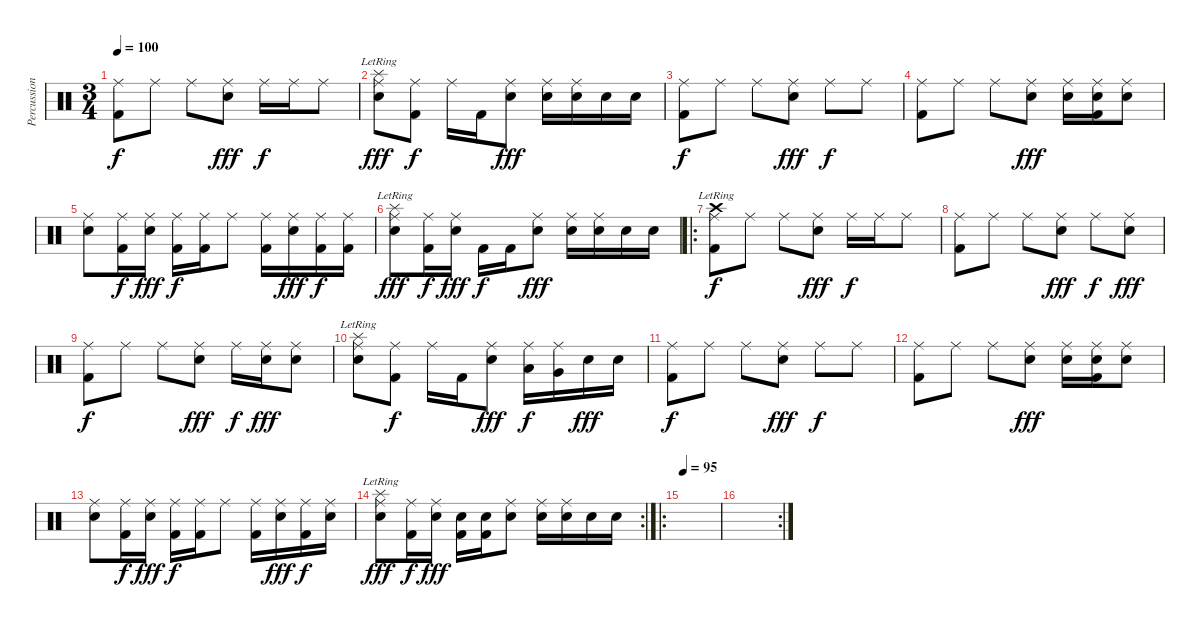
\track ("Percussions" "Percussion") {instrument percussion}
\staff {score}
\articulation defaults
\ts (3 4)
\tempo 100
\clef neutral
\ks c
("Ride (middle)" "Kick (hit) 2").8{dy f} "Ride (middle)".8 "Ride (middle)".8 ("Ride (middle)" "Snare (hit) 2").8{dy fff} "Ride (middle)".16{dy f} "Ride (middle)".16 "Ride (middle)".8 |
("Ride (middle)" "Splash (hit)"{lr} "Snare (hit) 2").8{dy fff} ("Ride (middle)" "Kick (hit) 2").8{dy f} "Ride (middle)".16 "Kick (hit) 2".16 ("Ride (middle)" "Snare (hit) 2").8{dy fff} ("Ride (middle)" "Snare (hit) 2").16 ("Ride (middle)" "Snare (hit) 2").16 "Snare (hit) 2".16 "Snare (hit) 2".16 |
("Ride (middle)" "Kick (hit) 2").8{dy f} "Ride (middle)".8 "Ride (middle)".8 ("Ride (middle)" "Snare (hit) 2").8{dy fff} "Ride (middle)".8{dy f} "Ride (middle)".8 |
("Ride (middle)" "Kick (hit) 2").8 "Ride (middle)".8 "Ride (middle)".8 ("Ride (middle)" "Snare (hit) 2").8{dy fff} ("Ride (middle)" "Snare (hit) 2").16 ("Ride (middle)" "Snare (hit) 2" "Kick (hit) 2").16 ("Ride (middle)" "Snare (hit) 2").8 |
("Ride (middle)" "Snare (hit) 2").8 ("Ride (middle)" "Kick (hit) 2").16{dy f} ("Ride (middle)" "Snare (hit) 2").16{dy fff} ("Ride (middle)" "Kick (hit) 2").16{dy f} ("Ride (middle)" "Kick (hit) 2").16 "Ride (middle)".8 ("Ride (middle)" "Kick (hit) 2").16 ("Ride (middle)" "Snare (hit) 2").16{dy fff} ("Ride (middle)" "Kick (hit) 2").16{dy f} ("Ride (middle)" "Kick (hit) 2").16 |
("Ride (middle)" "Splash (hit)"{lr} "Snare (hit) 2").8{dy fff} ("Ride (middle)" "Kick (hit) 2").16{dy f} ("Ride (middle)" "Snare (hit) 2").16{dy fff} "Kick (hit) 2".16{dy f} "Kick (hit) 2".16 ("Ride (middle)" "Snare (hit) 2").8{dy fff} ("Ride (middle)" "Snare (hit) 2").16 ("Ride (middle)" "Snare (hit) 2").16 "Snare (hit) 2".16 "Snare (hit) 2".16 |
\ro
("Ride (middle)" "Crash high (hit)"{lr} "Kick (hit) 2").8{dy f} "Ride (middle)".8 "Ride (middle)".8 ("Ride (middle)" "Snare (hit) 2").8{dy fff} "Ride (middle)".16{dy f} "Ride (middle)".16 "Ride (middle)".8 |
("Ride (middle)" "Kick (hit) 2").8 "Ride (middle)".8 "Ride (middle)".8 ("Ride (middle)" "Snare (hit) 2").8{dy fff} "Ride (middle)".8{dy f} ("Ride (middle)" "Snare (hit) 2").8{dy fff} |
("Ride (middle)" "Kick (hit) 2").8{dy f} "Ride (middle)".8 "Ride (middle)".8 ("Ride (middle)" "Snare (hit) 2").8{dy fff} "Ride (middle)".16{dy f} ("Ride (middle)" "Snare (hit) 2").16{dy fff} ("Ride (middle)" "Snare (hit) 2").8 |
("Ride (middle)" "Splash (hit)"{lr} "Snare (hit) 2").8 ("Ride (middle)" "Kick (hit) 2").8{dy f} "Ride (middle)".16 "Kick (hit) 2".16 ("Ride (middle)" "Snare (hit) 2").8{dy fff} ("Ride (middle)" "Low Tom (hit)").16{dy f} ("Ride (middle)" "Very Low Tom (hit)").16 "Snare (hit) 2".16{dy fff} "Snare (hit) 2".16 |
("Ride (middle)" "Kick (hit) 2").8{dy f} "Ride (middle)".8 "Ride (middle)".8 ("Ride (middle)" "Snare (hit) 2").8{dy fff} "Ride (middle)".8{dy f} "Ride (middle)".8 |
("Ride (middle)" "Kick (hit) 2").8 "Ride (middle)".8 "Ride (middle)".8 ("Ride (middle)" "Snare (hit) 2").8{dy fff} ("Ride (middle)" "Snare (hit) 2").16 ("Ride (middle)" "Snare (hit) 2" "Kick (hit) 2").16 ("Ride (middle)" "Snare (hit) 2").8 |
("Ride (middle)" "Snare (hit) 2").8 ("Ride (middle)" "Kick (hit) 2").16{dy f} ("Ride (middle)" "Snare (hit) 2").16{dy fff} ("Ride (middle)" "Kick (hit) 2").16{dy f} ("Ride (middle)" "Kick (hit) 2").16 "Ride (middle)".8 ("Ride (middle)" "Kick (hit) 2").16 ("Ride (middle)" "Snare (hit) 2").16{dy fff} ("Ride (middle)" "Kick (hit) 2").16{dy f} ("Ride (middle)" "Snare (hit) 2").16 |
\rc 2
("Ride (middle)" "Splash (hit)"{lr} "Snare (hit) 2").8{dy fff} ("Ride (middle)" "Kick (hit) 2").16{dy f} ("Ride (middle)" "Snare (hit) 2").16{dy fff} ("Snare (hit) 2" "Kick (hit) 2").16 ("Snare (hit) 2" "Kick (hit) 2").16 ("Ride (middle)" "Snare (hit) 2").8 ("Ride (middle)" "Snare (hit) 2").16 ("Ride (middle)" "Snare (hit) 2").16 "Snare (hit) 2".16 "Snare (hit) 2".16 |
\ro
\tempo 95
|
\rc 2
